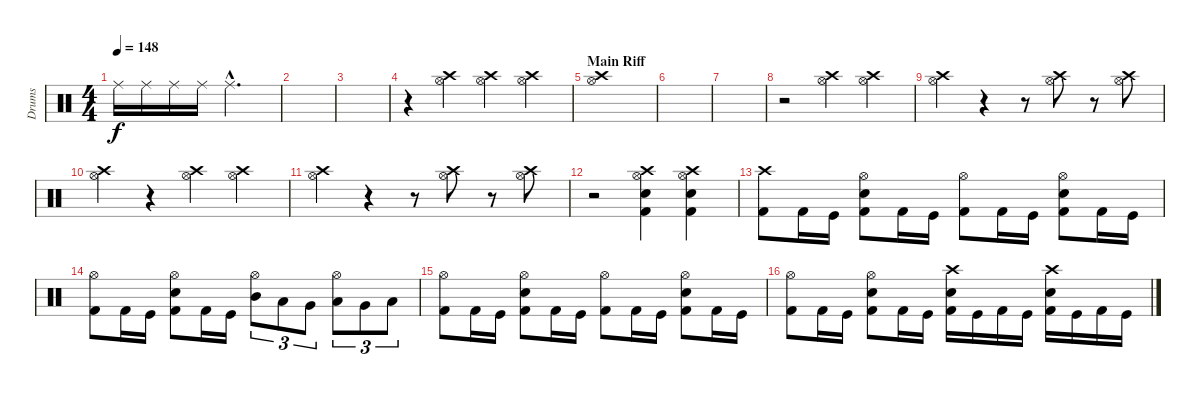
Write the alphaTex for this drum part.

\track ("Drums" "Drums") {instrument percussion}
\staff {score}
\articulation defaults
\ts (4 4)
\tempo 148
\clef neutral
\ks c "Ride (middle)".16{dy f} "Ride (middle)".16 "Ride (middle)".16 "Ride (middle)".16 "Ride (middle)"{hac}.2{d}
|
|
|
r.4 ("Hi-Hat (open)" "Crash high (hit)").4 ("Hi-Hat (open)" "Crash high (hit)").4 ("Hi-Hat (open)" "Crash high (hit)").4 |
\section ("" "Main Riff")
("Hi-Hat (open)" "Crash high (hit)").1 |
|
|
r.2 ("Hi-Hat (open)" "Crash high (hit)").4 ("Hi-Hat (open)" "Crash high (hit)").4 |
("Hi-Hat (open)" "Crash high (hit)").4 r.4 r.8 ("Hi-Hat (open)" "Crash high (hit)").8 r.8 ("Hi-Hat (open)" "Crash high (hit)").8 |
("Hi-Hat (open)" "Crash high (hit)").4 r.4 ("Hi-Hat (open)" "Crash high (hit)").4 ("Hi-Hat (open)" "Crash high (hit)").4 |
("Hi-Hat (open)" "Crash high (hit)").4 r.4 r.8 ("Hi-Hat (open)" "Crash high (hit)").8 r.8 ("Hi-Hat (open)" "Crash high (hit)").8 |
r.2 ("Hi-Hat (open)" "Crash high (hit)" "Snare (hit) 2" "Kick (hit) 2").4 ("Hi-Hat (open)" "Crash high (hit)" "Snare (hit) 2" "Kick (hit) 2").4 |
("Crash high (hit)" "Kick (hit) 2").8 "Kick (hit) 2".16 "Kick (hit)".16 ("Hi-Hat (open)" "Snare (hit) 2" "Kick (hit) 2").8 "Kick (hit) 2".16 "Kick (hit)".16 ("Hi-Hat (open)" "Kick (hit) 2").8 "Kick (hit) 2".16 "Kick (hit)".16 ("Hi-Hat (open)" "Snare (hit) 2" "Kick (hit) 2").8 "Kick (hit) 2".16 "Kick (hit)".16 |
("Hi-Hat (open)" "Kick (hit) 2").8 "Kick (hit) 2".16 "Kick (hit)".16 ("Hi-Hat (open)" "Snare (hit) 2" "Kick (hit) 2").8 "Kick (hit) 2".16 "Kick (hit)".16 ("Hi-Hat (open)" "Mid Tom (hit)").8{tu (3 2)} "Low Tom (hit)".8{tu (3 2)} "Very Low Tom (hit)".8{tu (3 2)} ("Hi-Hat (open)" "Low Tom (hit)").8{tu (3 2)} "Very Low Tom (hit)".8{tu (3 2)} "Low Floor Tom (hit)".8{tu (3 2)} |
("Hi-Hat (open)" "Kick (hit) 2").8 "Kick (hit) 2".16 "Kick (hit)".16 ("Hi-Hat (open)" "Snare (hit) 2" "Kick (hit) 2").8 "Kick (hit) 2".16 "Kick (hit)".16 ("Hi-Hat (open)" "Kick (hit) 2").8 "Kick (hit) 2".16 "Kick (hit)".16 ("Hi-Hat (open)" "Snare (hit) 2" "Kick (hit) 2").8 "Kick (hit) 2".16 "Kick (hit)".16 |
("Hi-Hat (open)" "Kick (hit) 2").8 "Kick (hit) 2".16 "Kick (hit)".16 ("Hi-Hat (open)" "Snare (hit) 2" "Kick (hit) 2").8 "Kick (hit) 2".16 "Kick (hit)".16 ("Crash high (hit)" "Snare (hit) 2" "Kick (hit) 2").16 "Kick (hit)".16 "Kick (hit) 2".16 "Kick (hit)".16 ("Crash high (hit)" "Snare (hit) 2" "Kick (hit) 2").16 "Kick (hit)".16 "Kick (hit) 2".16 "Kick (hit)".16
